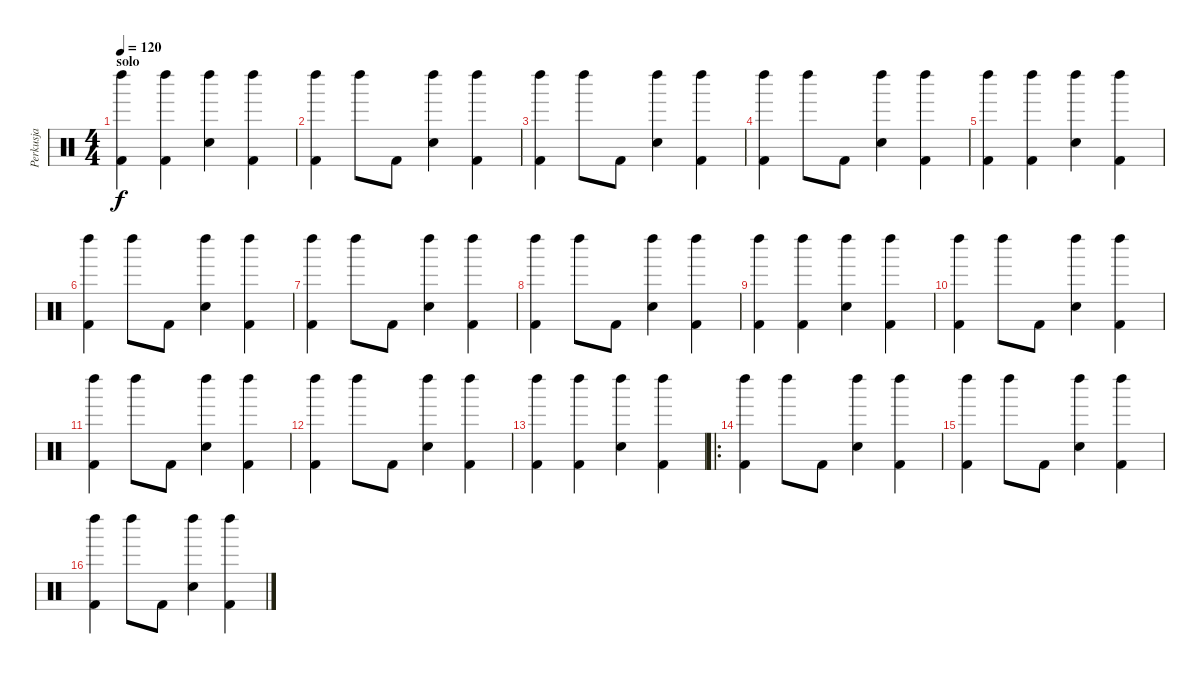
\track ("Perkusja" "Perkusja") {instrument percussion}
\staff {score}
\articulation defaults
\ts (4 4)
\section ("" "solo")
\tempo 120
\clef neutral
\ks c
("Left Maraca (hit)" "Kick (hit) 2").4{dy f} ("Left Maraca (hit)" "Kick (hit) 2").4 ("Left Maraca (hit)" "Snare (hit) 2").4 ("Left Maraca (hit)" "Kick (hit) 2").4 |
("Left Maraca (hit)" "Kick (hit) 2").4 "Left Maraca (hit)".8 "Kick (hit) 2".8 ("Left Maraca (hit)" "Snare (hit) 2").4 ("Left Maraca (hit)" "Kick (hit) 2").4 |
("Left Maraca (hit)" "Kick (hit) 2").4 "Left Maraca (hit)".8 "Kick (hit) 2".8 ("Left Maraca (hit)" "Snare (hit) 2").4 ("Left Maraca (hit)" "Kick (hit) 2").4 |
("Left Maraca (hit)" "Kick (hit) 2").4 "Left Maraca (hit)".8 "Kick (hit) 2".8 ("Left Maraca (hit)" "Snare (hit) 2").4 ("Left Maraca (hit)" "Kick (hit) 2").4 |
("Left Maraca (hit)" "Kick (hit) 2").4 ("Left Maraca (hit)" "Kick (hit) 2").4 ("Left Maraca (hit)" "Snare (hit) 2").4 ("Left Maraca (hit)" "Kick (hit) 2").4 |
("Left Maraca (hit)" "Kick (hit) 2").4 "Left Maraca (hit)".8 "Kick (hit) 2".8 ("Left Maraca (hit)" "Snare (hit) 2").4 ("Left Maraca (hit)" "Kick (hit) 2").4 |
("Left Maraca (hit)" "Kick (hit) 2").4 "Left Maraca (hit)".8 "Kick (hit) 2".8 ("Left Maraca (hit)" "Snare (hit) 2").4 ("Left Maraca (hit)" "Kick (hit) 2").4 |
("Left Maraca (hit)" "Kick (hit) 2").4 "Left Maraca (hit)".8 "Kick (hit) 2".8 ("Left Maraca (hit)" "Snare (hit) 2").4 ("Left Maraca (hit)" "Kick (hit) 2").4 |
("Left Maraca (hit)" "Kick (hit) 2").4 ("Left Maraca (hit)" "Kick (hit) 2").4 ("Left Maraca (hit)" "Snare (hit) 2").4 ("Left Maraca (hit)" "Kick (hit) 2").4 |
("Left Maraca (hit)" "Kick (hit) 2").4 "Left Maraca (hit)".8 "Kick (hit) 2".8 ("Left Maraca (hit)" "Snare (hit) 2").4 ("Left Maraca (hit)" "Kick (hit) 2").4 |
("Left Maraca (hit)" "Kick (hit) 2").4 "Left Maraca (hit)".8 "Kick (hit) 2".8 ("Left Maraca (hit)" "Snare (hit) 2").4 ("Left Maraca (hit)" "Kick (hit) 2").4 |
("Left Maraca (hit)" "Kick (hit) 2").4 "Left Maraca (hit)".8 "Kick (hit) 2".8 ("Left Maraca (hit)" "Snare (hit) 2").4 ("Left Maraca (hit)" "Kick (hit) 2").4 |
("Left Maraca (hit)" "Kick (hit) 2").4 ("Left Maraca (hit)" "Kick (hit) 2").4 ("Left Maraca (hit)" "Snare (hit) 2").4 ("Left Maraca (hit)" "Kick (hit) 2").4 |
\ro
("Left Maraca (hit)" "Kick (hit) 2").4 "Left Maraca (hit)".8 "Kick (hit) 2".8 ("Left Maraca (hit)" "Snare (hit) 2").4 ("Left Maraca (hit)" "Kick (hit) 2").4 |
("Left Maraca (hit)" "Kick (hit) 2").4 "Left Maraca (hit)".8 "Kick (hit) 2".8 ("Left Maraca (hit)" "Snare (hit) 2").4 ("Left Maraca (hit)" "Kick (hit) 2").4 |
("Left Maraca (hit)" "Kick (hit) 2").4 "Left Maraca (hit)".8 "Kick (hit) 2".8 ("Left Maraca (hit)" "Snare (hit) 2").4 ("Left Maraca (hit)" "Kick (hit) 2").4
